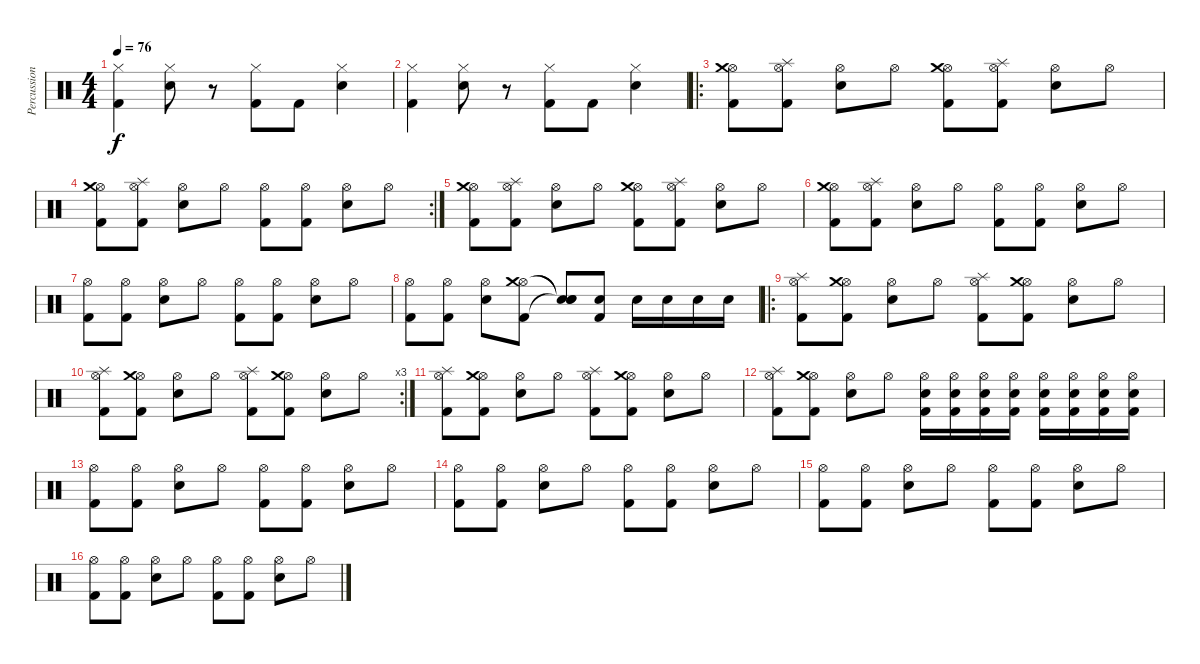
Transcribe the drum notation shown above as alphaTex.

\track ("Percussion" "Percussion") {instrument percussion}
\staff {score}
\articulation defaults
\ts (4 4)
\tempo 76
\clef neutral
\ks c
("Hi-Hat (closed)" "Kick (hit) 2").4{dy f} ("Electric Snare (hit)" "Hi-Hat (closed)").8 r.8 ("Hi-Hat (closed)" "Kick (hit) 2").8 "Kick (hit) 2".8 ("Electric Snare (hit)" "Hi-Hat (closed)").4 |
("Hi-Hat (closed)" "Kick (hit) 2").4 ("Electric Snare (hit)" "Hi-Hat (closed)").8 r.8 ("Hi-Hat (closed)" "Kick (hit) 2").8 "Kick (hit) 2".8 ("Electric Snare (hit)" "Hi-Hat (closed)").4 |
\ro
("Hi-Hat (open)" "Kick (hit) 2" "Crash medium (hit)").8 ("Hi-Hat (open)" "Kick (hit) 2" "Splash (hit)").8 ("Electric Snare (hit)" "Hi-Hat (open)").8 "Hi-Hat (open)".8 ("Hi-Hat (open)" "Kick (hit) 2" "Crash medium (hit)").8 ("Hi-Hat (open)" "Kick (hit) 2" "Splash (hit)").8 ("Electric Snare (hit)" "Hi-Hat (open)").8 "Hi-Hat (open)".8 |
\rc 2
("Hi-Hat (open)" "Kick (hit) 2" "Crash medium (hit)").8 ("Hi-Hat (open)" "Kick (hit) 2" "Splash (hit)").8 ("Electric Snare (hit)" "Hi-Hat (open)").8 "Hi-Hat (open)".8 ("Hi-Hat (open)" "Kick (hit) 2").8 ("Hi-Hat (open)" "Kick (hit) 2").8 ("Electric Snare (hit)" "Hi-Hat (open)").8 "Hi-Hat (open)".8 |
("Hi-Hat (open)" "Kick (hit) 2" "Crash medium (hit)").8 ("Hi-Hat (open)" "Kick (hit) 2" "Splash (hit)").8 ("Electric Snare (hit)" "Hi-Hat (open)").8 "Hi-Hat (open)".8 ("Hi-Hat (open)" "Kick (hit) 2" "Crash medium (hit)").8 ("Hi-Hat (open)" "Kick (hit) 2" "Splash (hit)").8 ("Electric Snare (hit)" "Hi-Hat (open)").8 "Hi-Hat (open)".8 |
("Hi-Hat (open)" "Kick (hit) 2" "Crash medium (hit)").8 ("Hi-Hat (open)" "Kick (hit) 2" "Splash (hit)").8 ("Electric Snare (hit)" "Hi-Hat (open)").8 "Hi-Hat (open)".8 ("Hi-Hat (open)" "Kick (hit) 2").8 ("Hi-Hat (open)" "Kick (hit) 2").8 ("Electric Snare (hit)" "Hi-Hat (open)").8 "Hi-Hat (open)".8 |
("Hi-Hat (open)" "Kick (hit) 2").8 ("Hi-Hat (open)" "Kick (hit) 2").8 ("Electric Snare (hit)" "Hi-Hat (open)").8 "Hi-Hat (open)".8 ("Hi-Hat (open)" "Kick (hit) 2").8 ("Hi-Hat (open)" "Kick (hit) 2").8 ("Electric Snare (hit)" "Hi-Hat (open)").8 "Hi-Hat (open)".8 |
("Hi-Hat (open)" "Kick (hit) 2").8 ("Hi-Hat (open)" "Kick (hit) 2").8 ("Electric Snare (hit)" "Hi-Hat (open)").8 ("Hi-Hat (open)" "Kick (hit) 2" "Crash medium (hit)").8 ("Snare (hit)"{t} "Snare (hit)"{t} "Snare (hit)"{t}).8 ("Electric Snare (hit)" "Kick (hit) 2").8 "Electric Snare (hit)".16 "Electric Snare (hit)".16 "Electric Snare (hit)".16 "Electric Snare (hit)".16 |
\ro
("Hi-Hat (open)" "Kick (hit) 2" "Splash (hit)").8 ("Hi-Hat (open)" "Kick (hit) 2" "Crash medium (hit)").8 ("Electric Snare (hit)" "Hi-Hat (open)").8 "Hi-Hat (open)".8 ("Hi-Hat (open)" "Kick (hit) 2" "Splash (hit)").8 ("Hi-Hat (open)" "Kick (hit) 2" "Crash medium (hit)").8 ("Electric Snare (hit)" "Hi-Hat (open)").8 "Hi-Hat (open)".8 |
\rc 3
("Hi-Hat (open)" "Kick (hit) 2" "Splash (hit)").8 ("Hi-Hat (open)" "Kick (hit) 2" "Crash medium (hit)").8 ("Electric Snare (hit)" "Hi-Hat (open)").8 "Hi-Hat (open)".8 ("Hi-Hat (open)" "Kick (hit) 2" "Splash (hit)").8 ("Hi-Hat (open)" "Kick (hit) 2" "Crash medium (hit)").8 ("Electric Snare (hit)" "Hi-Hat (open)").8 "Hi-Hat (open)".8 |
("Hi-Hat (open)" "Kick (hit) 2" "Splash (hit)").8 ("Hi-Hat (open)" "Kick (hit) 2" "Crash medium (hit)").8 ("Electric Snare (hit)" "Hi-Hat (open)").8 "Hi-Hat (open)".8 ("Hi-Hat (open)" "Kick (hit) 2" "Splash (hit)").8 ("Hi-Hat (open)" "Kick (hit) 2" "Crash medium (hit)").8 ("Electric Snare (hit)" "Hi-Hat (open)").8 "Hi-Hat (open)".8 |
("Hi-Hat (open)" "Kick (hit) 2" "Splash (hit)").8 ("Hi-Hat (open)" "Kick (hit) 2" "Crash medium (hit)").8 ("Electric Snare (hit)" "Hi-Hat (open)").8 "Hi-Hat (open)".8 ("Electric Snare (hit)" "Hi-Hat (open)" "Kick (hit) 2").16 ("Electric Snare (hit)" "Hi-Hat (open)" "Kick (hit) 2").16 ("Electric Snare (hit)" "Hi-Hat (open)" "Kick (hit) 2").16 ("Electric Snare (hit)" "Hi-Hat (open)" "Kick (hit) 2").16 ("Electric Snare (hit)" "Hi-Hat (open)" "Kick (hit) 2").16 ("Electric Snare (hit)" "Hi-Hat (open)" "Kick (hit) 2").16 ("Electric Snare (hit)" "Hi-Hat (open)" "Kick (hit) 2").16 ("Electric Snare (hit)" "Hi-Hat (open)" "Kick (hit) 2").16 |
("Hi-Hat (open)" "Kick (hit) 2").8 ("Hi-Hat (open)" "Kick (hit) 2").8 ("Electric Snare (hit)" "Hi-Hat (open)").8 "Hi-Hat (open)".8 ("Hi-Hat (open)" "Kick (hit) 2").8 ("Hi-Hat (open)" "Kick (hit) 2").8 ("Electric Snare (hit)" "Hi-Hat (open)").8 "Hi-Hat (open)".8 |
("Hi-Hat (open)" "Kick (hit) 2").8 ("Hi-Hat (open)" "Kick (hit) 2").8 ("Electric Snare (hit)" "Hi-Hat (open)").8 "Hi-Hat (open)".8 ("Hi-Hat (open)" "Kick (hit) 2").8 ("Hi-Hat (open)" "Kick (hit) 2").8 ("Electric Snare (hit)" "Hi-Hat (open)").8 "Hi-Hat (open)".8 |
("Hi-Hat (open)" "Kick (hit) 2").8 ("Hi-Hat (open)" "Kick (hit) 2").8 ("Electric Snare (hit)" "Hi-Hat (open)").8 "Hi-Hat (open)".8 ("Hi-Hat (open)" "Kick (hit) 2").8 ("Hi-Hat (open)" "Kick (hit) 2").8 ("Electric Snare (hit)" "Hi-Hat (open)").8 "Hi-Hat (open)".8 |
("Hi-Hat (open)" "Kick (hit) 2").8 ("Hi-Hat (open)" "Kick (hit) 2").8 ("Electric Snare (hit)" "Hi-Hat (open)").8 "Hi-Hat (open)".8 ("Hi-Hat (open)" "Kick (hit) 2").8 ("Hi-Hat (open)" "Kick (hit) 2").8 ("Electric Snare (hit)" "Hi-Hat (open)").8 "Hi-Hat (open)".8
